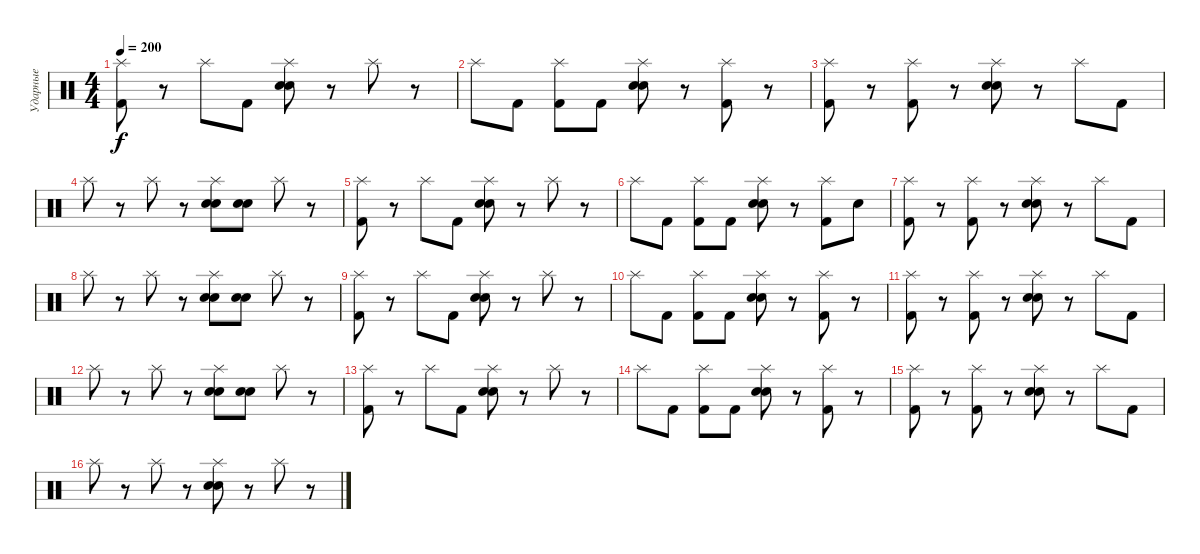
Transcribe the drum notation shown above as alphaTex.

\track ("Ударные" "Ударные") {instrument percussion}
\staff {score}
\articulation defaults
\ts (4 4)
\tempo 200
\clef neutral
\ks c
("Splash (hit)" "Kick (hit) 2").8{dy f} r.8 "Splash (hit)".8 "Kick (hit) 2".8 ("Splash (hit)" "Electric Snare (hit)" "Snare (hit) 2").8 r.8 "Splash (hit)".8 r.8 |
"Splash (hit)".8 "Kick (hit) 2".8 ("Splash (hit)" "Kick (hit) 2").8 "Kick (hit) 2".8 ("Splash (hit)" "Electric Snare (hit)" "Snare (hit) 2").8 r.8 ("Splash (hit)" "Kick (hit) 2").8 r.8 |
("Splash (hit)" "Kick (hit) 2").8 r.8 ("Splash (hit)" "Kick (hit) 2").8 r.8 ("Splash (hit)" "Electric Snare (hit)" "Snare (hit) 2").8 r.8 "Splash (hit)".8 "Kick (hit) 2".8 |
"Splash (hit)".8 r.8 "Splash (hit)".8 r.8 ("Splash (hit)" "Electric Snare (hit)" "Snare (hit) 2").8 ("Electric Snare (hit)" "Snare (hit) 2").8 "Splash (hit)".8 r.8 |
("Splash (hit)" "Kick (hit) 2").8 r.8 "Splash (hit)".8 "Kick (hit) 2".8 ("Splash (hit)" "Electric Snare (hit)" "Snare (hit) 2").8 r.8 "Splash (hit)".8 r.8 |
"Splash (hit)".8 "Kick (hit) 2".8 ("Splash (hit)" "Kick (hit) 2").8 "Kick (hit) 2".8 ("Splash (hit)" "Electric Snare (hit)" "Snare (hit) 2").8 r.8 ("Splash (hit)" "Kick (hit) 2").8 "Electric Snare (hit)".8 |
("Splash (hit)" "Kick (hit) 2").8 r.8 ("Splash (hit)" "Kick (hit) 2").8 r.8 ("Splash (hit)" "Electric Snare (hit)" "Snare (hit) 2").8 r.8 "Splash (hit)".8 "Kick (hit) 2".8 |
"Splash (hit)".8 r.8 "Splash (hit)".8 r.8 ("Splash (hit)" "Electric Snare (hit)" "Snare (hit) 2").8 ("Electric Snare (hit)" "Snare (hit) 2").8 "Splash (hit)".8 r.8 |
("Splash (hit)" "Kick (hit) 2").8 r.8 "Splash (hit)".8 "Kick (hit) 2".8 ("Splash (hit)" "Electric Snare (hit)" "Snare (hit) 2").8 r.8 "Splash (hit)".8 r.8 |
"Splash (hit)".8 "Kick (hit) 2".8 ("Splash (hit)" "Kick (hit) 2").8 "Kick (hit) 2".8 ("Splash (hit)" "Electric Snare (hit)" "Snare (hit) 2").8 r.8 ("Splash (hit)" "Kick (hit) 2").8 r.8 |
("Splash (hit)" "Kick (hit) 2").8 r.8 ("Splash (hit)" "Kick (hit) 2").8 r.8 ("Splash (hit)" "Electric Snare (hit)" "Snare (hit) 2").8 r.8 "Splash (hit)".8 "Kick (hit) 2".8 |
"Splash (hit)".8 r.8 "Splash (hit)".8 r.8 ("Splash (hit)" "Electric Snare (hit)" "Snare (hit) 2").8 ("Electric Snare (hit)" "Snare (hit) 2").8 "Splash (hit)".8 r.8 |
("Splash (hit)" "Kick (hit) 2").8 r.8 "Splash (hit)".8 "Kick (hit) 2".8 ("Splash (hit)" "Electric Snare (hit)" "Snare (hit) 2").8 r.8 "Splash (hit)".8 r.8 |
"Splash (hit)".8 "Kick (hit) 2".8 ("Splash (hit)" "Kick (hit) 2").8 "Kick (hit) 2".8 ("Splash (hit)" "Electric Snare (hit)" "Snare (hit) 2").8 r.8 ("Splash (hit)" "Kick (hit) 2").8 r.8 |
("Splash (hit)" "Kick (hit) 2").8 r.8 ("Splash (hit)" "Kick (hit) 2").8 r.8 ("Splash (hit)" "Electric Snare (hit)" "Snare (hit) 2").8 r.8 "Splash (hit)".8 "Kick (hit) 2".8 |
"Splash (hit)".8 r.8 "Splash (hit)".8 r.8 ("Splash (hit)" "Electric Snare (hit)" "Snare (hit) 2").8 r.8 "Splash (hit)".8 r.8
